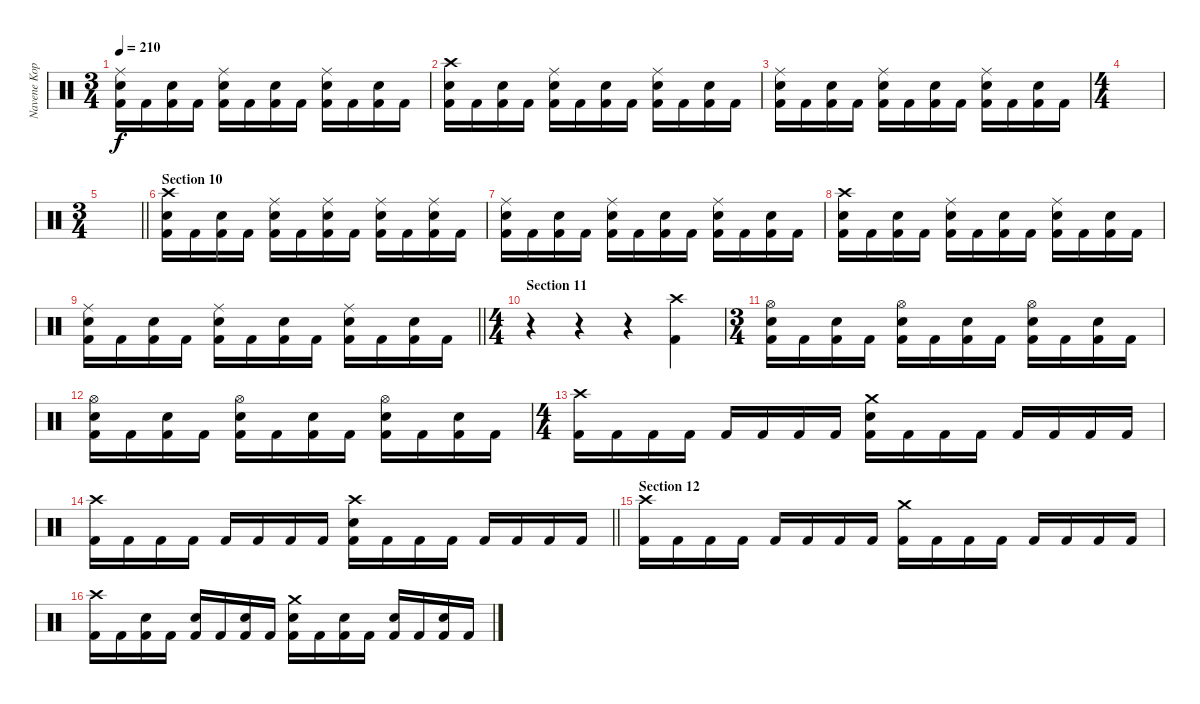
\track ("Navene Koperweis - drums" "Navene Kop") {instrument percussion}
\staff {score}
\articulation defaults
\ts (3 4)
\tempo 210
\clef neutral
\ks c
("Ride (middle)" "Electric Snare (hit)" "Kick (hit) 2").16{dy f} "Kick (hit) 2".16 ("Electric Snare (hit)" "Kick (hit) 2").16 "Kick (hit) 2".16 ("Ride (middle)" "Electric Snare (hit)" "Kick (hit) 2").16 "Kick (hit) 2".16 ("Electric Snare (hit)" "Kick (hit) 2").16 "Kick (hit) 2".16 ("Ride (middle)" "Electric Snare (hit)" "Kick (hit) 2").16 "Kick (hit) 2".16 ("Electric Snare (hit)" "Kick (hit) 2").16 "Kick (hit) 2".16 |
("Crash high (hit)" "Electric Snare (hit)" "Kick (hit) 2").16 "Kick (hit) 2".16 ("Electric Snare (hit)" "Kick (hit) 2").16 "Kick (hit) 2".16 ("Ride (middle)" "Electric Snare (hit)" "Kick (hit) 2").16 "Kick (hit) 2".16 ("Electric Snare (hit)" "Kick (hit) 2").16 "Kick (hit) 2".16 ("Ride (middle)" "Electric Snare (hit)" "Kick (hit) 2").16 "Kick (hit) 2".16 ("Electric Snare (hit)" "Kick (hit) 2").16 "Kick (hit) 2".16 |
("Ride (middle)" "Electric Snare (hit)" "Kick (hit) 2").16 "Kick (hit) 2".16 ("Electric Snare (hit)" "Kick (hit) 2").16 "Kick (hit) 2".16 ("Ride (middle)" "Electric Snare (hit)" "Kick (hit) 2").16 "Kick (hit) 2".16 ("Electric Snare (hit)" "Kick (hit) 2").16 "Kick (hit) 2".16 ("Ride (middle)" "Electric Snare (hit)" "Kick (hit) 2").16 "Kick (hit) 2".16 ("Electric Snare (hit)" "Kick (hit) 2").16 "Kick (hit) 2".16 |
\ts (4 4)
|
\ts (3 4)
\barLineRight lightlight
|
\section ("" "Section 10")
("Crash high (hit)" "Electric Snare (hit)" "Kick (hit) 2").16 "Kick (hit) 2".16 ("Electric Snare (hit)" "Kick (hit) 2").16 "Kick (hit) 2".16 ("Ride (middle)" "Electric Snare (hit)" "Kick (hit) 2").16 "Kick (hit) 2".16 ("Ride (middle)" "Electric Snare (hit)" "Kick (hit) 2").16 "Kick (hit) 2".16 ("Ride (middle)" "Electric Snare (hit)" "Kick (hit) 2").16 "Kick (hit) 2".16 ("Ride (middle)" "Electric Snare (hit)" "Kick (hit) 2").16 "Kick (hit) 2".16 |
("Ride (middle)" "Electric Snare (hit)" "Kick (hit) 2").16 "Kick (hit) 2".16 ("Electric Snare (hit)" "Kick (hit) 2").16 "Kick (hit) 2".16 ("Ride (middle)" "Electric Snare (hit)" "Kick (hit) 2").16 "Kick (hit) 2".16 ("Electric Snare (hit)" "Kick (hit) 2").16 "Kick (hit) 2".16 ("Ride (middle)" "Electric Snare (hit)" "Kick (hit) 2").16 "Kick (hit) 2".16 ("Electric Snare (hit)" "Kick (hit) 2").16 "Kick (hit) 2".16 |
("Crash high (hit)" "Electric Snare (hit)" "Kick (hit) 2").16 "Kick (hit) 2".16 ("Electric Snare (hit)" "Kick (hit) 2").16 "Kick (hit) 2".16 ("Ride (middle)" "Electric Snare (hit)" "Kick (hit) 2").16 "Kick (hit) 2".16 ("Electric Snare (hit)" "Kick (hit) 2").16 "Kick (hit) 2".16 ("Ride (middle)" "Electric Snare (hit)" "Kick (hit) 2").16 "Kick (hit) 2".16 ("Electric Snare (hit)" "Kick (hit) 2").16 "Kick (hit) 2".16 |
\barLineRight lightlight
("Ride (middle)" "Electric Snare (hit)" "Kick (hit) 2").16 "Kick (hit) 2".16 ("Electric Snare (hit)" "Kick (hit) 2").16 "Kick (hit) 2".16 ("Ride (middle)" "Electric Snare (hit)" "Kick (hit) 2").16 "Kick (hit) 2".16 ("Electric Snare (hit)" "Kick (hit) 2").16 "Kick (hit) 2".16 ("Ride (middle)" "Electric Snare (hit)" "Kick (hit) 2").16 "Kick (hit) 2".16 ("Electric Snare (hit)" "Kick (hit) 2").16 "Kick (hit) 2".16 |
\ts (4 4)
\section ("" "Section 11")
r.4 r.4 r.4 ("Crash high (hit)" "Kick (hit) 2").4 |
\ts (3 4)
("Hi-Hat (open)" "Electric Snare (hit)" "Kick (hit) 2").16 "Kick (hit) 2".16 ("Electric Snare (hit)" "Kick (hit) 2").16 "Kick (hit) 2".16 ("Hi-Hat (open)" "Electric Snare (hit)" "Kick (hit) 2").16 "Kick (hit) 2".16 ("Electric Snare (hit)" "Kick (hit) 2").16 "Kick (hit) 2".16 ("Hi-Hat (open)" "Electric Snare (hit)" "Kick (hit) 2").16 "Kick (hit) 2".16 ("Electric Snare (hit)" "Kick (hit) 2").16 "Kick (hit) 2".16 |
("Hi-Hat (open)" "Electric Snare (hit)" "Kick (hit) 2").16 "Kick (hit) 2".16 ("Electric Snare (hit)" "Kick (hit) 2").16 "Kick (hit) 2".16 ("Hi-Hat (open)" "Electric Snare (hit)" "Kick (hit) 2").16 "Kick (hit) 2".16 ("Electric Snare (hit)" "Kick (hit) 2").16 "Kick (hit) 2".16 ("Hi-Hat (open)" "Electric Snare (hit)" "Kick (hit) 2").16 "Kick (hit) 2".16 ("Electric Snare (hit)" "Kick (hit) 2").16 "Kick (hit) 2".16 |
\ts (4 4)
("Crash high (hit)" "Kick (hit) 2").16 "Kick (hit) 2".16 "Kick (hit) 2".16 "Kick (hit) 2".16 "Kick (hit) 2".16 "Kick (hit) 2".16 "Kick (hit) 2".16 "Kick (hit) 2".16 ("Crash medium (hit)" "Electric Snare (hit)" "Kick (hit) 2").16 "Kick (hit) 2".16 "Kick (hit) 2".16 "Kick (hit) 2".16 "Kick (hit) 2".16 "Kick (hit) 2".16 "Kick (hit) 2".16 "Kick (hit) 2".16 |
\barLineRight lightlight
("Crash high (hit)" "Kick (hit) 2").16 "Kick (hit) 2".16 "Kick (hit) 2".16 "Kick (hit) 2".16 "Kick (hit) 2".16 "Kick (hit) 2".16 "Kick (hit) 2".16 "Kick (hit) 2".16 ("Crash high (hit)" "Electric Snare (hit)" "Kick (hit) 2").16 "Kick (hit) 2".16 "Kick (hit) 2".16 "Kick (hit) 2".16 "Kick (hit) 2".16 "Kick (hit) 2".16 "Kick (hit) 2".16 "Kick (hit) 2".16 |
\section ("" "Section 12")
("Crash high (hit)" "Kick (hit) 2").16 "Kick (hit) 2".16 "Kick (hit) 2".16 "Kick (hit) 2".16 "Kick (hit) 2".16 "Kick (hit) 2".16 "Kick (hit) 2".16 "Kick (hit) 2".16 ("Crash medium (hit)" "Kick (hit) 2").16 "Kick (hit) 2".16 "Kick (hit) 2".16 "Kick (hit) 2".16 "Kick (hit) 2".16 "Kick (hit) 2".16 "Kick (hit) 2".16 "Kick (hit) 2".16 |
("Crash high (hit)" "Kick (hit) 2").16 "Kick (hit) 2".16 ("Electric Snare (hit)" "Kick (hit) 2").16 "Kick (hit) 2".16 ("Electric Snare (hit)" "Kick (hit) 2").16 "Kick (hit) 2".16 ("Electric Snare (hit)" "Kick (hit) 2").16 "Kick (hit) 2".16 ("Crash medium (hit)" "Electric Snare (hit)" "Kick (hit) 2").16 "Kick (hit) 2".16 ("Electric Snare (hit)" "Kick (hit) 2").16 "Kick (hit) 2".16 ("Electric Snare (hit)" "Kick (hit) 2").16 "Kick (hit) 2".16 ("Electric Snare (hit)" "Kick (hit) 2").16 "Kick (hit) 2".16
